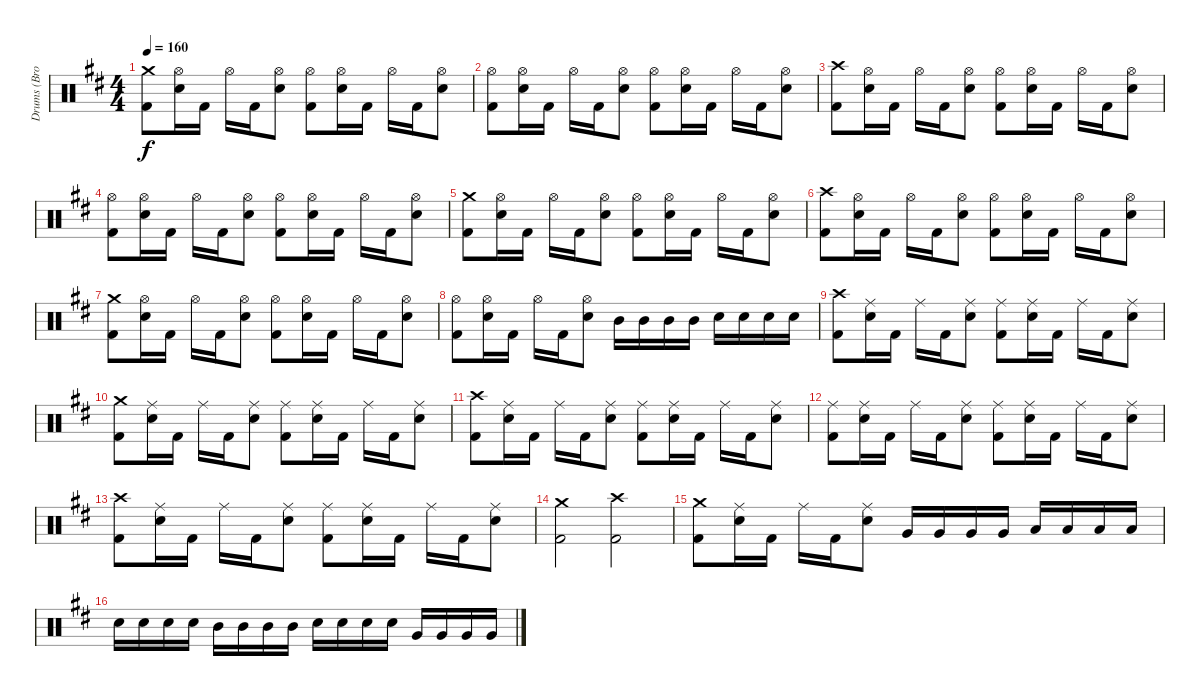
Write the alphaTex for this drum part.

\track ("Drums (Brooks Wackerman)" "Drums (Bro") {instrument percussion}
\staff {score}
\articulation defaults
\ts (4 4)
\tempo 160
\clef neutral
\ks d
("Crash medium (hit)" "Kick (hit) 2").8{dy f} ("Hi-Hat (open)" "Snare (hit) 2").16 "Kick (hit) 2".16 "Hi-Hat (open)".16 "Kick (hit) 2".16 ("Hi-Hat (open)" "Snare (hit) 2").8 ("Hi-Hat (open)" "Kick (hit) 2").8 ("Hi-Hat (open)" "Snare (hit) 2").16 "Kick (hit) 2".16 "Hi-Hat (open)".16 "Kick (hit) 2".16 ("Hi-Hat (open)" "Snare (hit) 2").8 |
("Hi-Hat (open)" "Kick (hit) 2").8 ("Hi-Hat (open)" "Snare (hit) 2").16 "Kick (hit) 2".16 "Hi-Hat (open)".16 "Kick (hit) 2".16 ("Hi-Hat (open)" "Snare (hit) 2").8 ("Hi-Hat (open)" "Kick (hit) 2").8 ("Hi-Hat (open)" "Snare (hit) 2").16 "Kick (hit) 2".16 "Hi-Hat (open)".16 "Kick (hit) 2".16 ("Hi-Hat (open)" "Snare (hit) 2").8 |
("Crash high (hit)" "Kick (hit) 2").8 ("Hi-Hat (open)" "Snare (hit) 2").16 "Kick (hit) 2".16 "Hi-Hat (open)".16 "Kick (hit) 2".16 ("Hi-Hat (open)" "Snare (hit) 2").8 ("Hi-Hat (open)" "Kick (hit) 2").8 ("Hi-Hat (open)" "Snare (hit) 2").16 "Kick (hit) 2".16 "Hi-Hat (open)".16 "Kick (hit) 2".16 ("Hi-Hat (open)" "Snare (hit) 2").8 |
("Hi-Hat (open)" "Kick (hit) 2").8 ("Hi-Hat (open)" "Snare (hit) 2").16 "Kick (hit) 2".16 "Hi-Hat (open)".16 "Kick (hit) 2".16 ("Hi-Hat (open)" "Snare (hit) 2").8 ("Hi-Hat (open)" "Kick (hit) 2").8 ("Hi-Hat (open)" "Snare (hit) 2").16 "Kick (hit) 2".16 "Hi-Hat (open)".16 "Kick (hit) 2".16 ("Hi-Hat (open)" "Snare (hit) 2").8 |
("Crash medium (hit)" "Kick (hit) 2").8 ("Hi-Hat (open)" "Snare (hit) 2").16 "Kick (hit) 2".16 "Hi-Hat (open)".16 "Kick (hit) 2".16 ("Hi-Hat (open)" "Snare (hit) 2").8 ("Hi-Hat (open)" "Kick (hit) 2").8 ("Hi-Hat (open)" "Snare (hit) 2").16 "Kick (hit) 2".16 "Hi-Hat (open)".16 "Kick (hit) 2".16 ("Hi-Hat (open)" "Snare (hit) 2").8 |
("Crash high (hit)" "Kick (hit) 2").8 ("Hi-Hat (open)" "Snare (hit) 2").16 "Kick (hit) 2".16 "Hi-Hat (open)".16 "Kick (hit) 2".16 ("Hi-Hat (open)" "Snare (hit) 2").8 ("Hi-Hat (open)" "Kick (hit) 2").8 ("Hi-Hat (open)" "Snare (hit) 2").16 "Kick (hit) 2".16 "Hi-Hat (open)".16 "Kick (hit) 2".16 ("Hi-Hat (open)" "Snare (hit) 2").8 |
("Crash medium (hit)" "Kick (hit) 2").8 ("Hi-Hat (open)" "Snare (hit) 2").16 "Kick (hit) 2".16 "Hi-Hat (open)".16 "Kick (hit) 2".16 ("Hi-Hat (open)" "Snare (hit) 2").8 ("Hi-Hat (open)" "Kick (hit) 2").8 ("Hi-Hat (open)" "Snare (hit) 2").16 "Kick (hit) 2".16 "Hi-Hat (open)".16 "Kick (hit) 2".16 ("Hi-Hat (open)" "Snare (hit) 2").8 |
("Hi-Hat (open)" "Kick (hit) 2").8 ("Hi-Hat (open)" "Snare (hit) 2").16 "Kick (hit) 2".16 "Hi-Hat (open)".16 "Kick (hit) 2".16 ("Hi-Hat (open)" "Snare (hit) 2").8 "Mid Tom (hit)".16 "Mid Tom (hit)".16 "Mid Tom (hit)".16 "Mid Tom (hit)".16 "Snare (hit) 2".16 "Snare (hit) 2".16 "Snare (hit) 2".16 "Snare (hit) 2".16 |
("Crash high (hit)" "Kick (hit) 2").8 ("Ride (middle)" "Snare (hit) 2").16 "Kick (hit) 2".16 "Ride (middle)".16 "Kick (hit) 2".16 ("Ride (middle)" "Snare (hit) 2").8 ("Ride (middle)" "Kick (hit) 2").8 ("Ride (middle)" "Snare (hit) 2").16 "Kick (hit) 2".16 "Ride (middle)".16 "Kick (hit) 2".16 ("Ride (middle)" "Snare (hit) 2").8 |
("Crash medium (hit)" "Kick (hit) 2").8 ("Ride (middle)" "Snare (hit) 2").16 "Kick (hit) 2".16 "Ride (middle)".16 "Kick (hit) 2".16 ("Ride (middle)" "Snare (hit) 2").8 ("Ride (middle)" "Kick (hit) 2").8 ("Ride (middle)" "Snare (hit) 2").16 "Kick (hit) 2".16 "Ride (middle)".16 "Kick (hit) 2".16 ("Ride (middle)" "Snare (hit) 2").8 |
("Crash high (hit)" "Kick (hit) 2").8 ("Ride (middle)" "Snare (hit) 2").16 "Kick (hit) 2".16 "Ride (middle)".16 "Kick (hit) 2".16 ("Ride (middle)" "Snare (hit) 2").8 ("Ride (middle)" "Kick (hit) 2").8 ("Ride (middle)" "Snare (hit) 2").16 "Kick (hit) 2".16 "Ride (middle)".16 "Kick (hit) 2".16 ("Ride (middle)" "Snare (hit) 2").8 |
("Ride (middle)" "Kick (hit) 2").8 ("Ride (middle)" "Snare (hit) 2").16 "Kick (hit) 2".16 "Ride (middle)".16 "Kick (hit) 2".16 ("Ride (middle)" "Snare (hit) 2").8 ("Ride (middle)" "Kick (hit) 2").8 ("Ride (middle)" "Snare (hit) 2").16 "Kick (hit) 2".16 "Ride (middle)".16 "Kick (hit) 2".16 ("Ride (middle)" "Snare (hit) 2").8 |
("Crash high (hit)" "Kick (hit) 2").8 ("Ride (middle)" "Snare (hit) 2").16 "Kick (hit) 2".16 "Ride (middle)".16 "Kick (hit) 2".16 ("Ride (middle)" "Snare (hit) 2").8 ("Ride (middle)" "Kick (hit) 2").8 ("Ride (middle)" "Snare (hit) 2").16 "Kick (hit) 2".16 "Ride (middle)".16 "Kick (hit) 2".16 ("Ride (middle)" "Snare (hit) 2").8 |
("Crash medium (hit)" "Kick (hit) 2").2 ("Crash high (hit)" "Kick (hit) 2").2 |
("Crash medium (hit)" "Kick (hit) 2").8 ("Ride (middle)" "Snare (hit) 2").16 "Kick (hit) 2".16 "Ride (middle)".16 "Kick (hit) 2".16 ("Ride (middle)" "Snare (hit) 2").8 "Very Low Tom (hit)".16 "Very Low Tom (hit)".16 "Very Low Tom (hit)".16 "Very Low Tom (hit)".16 "Low Floor Tom (hit)".16 "Low Floor Tom (hit)".16 "Low Floor Tom (hit)".16 "Low Floor Tom (hit)".16 |
"Snare (hit) 2".16 "Snare (hit) 2".16 "Snare (hit) 2".16 "Snare (hit) 2".16 "Mid Tom (hit)".16 "Mid Tom (hit)".16 "Mid Tom (hit)".16 "Mid Tom (hit)".16 "Snare (hit) 2".16 "Snare (hit) 2".16 "Snare (hit) 2".16 "Snare (hit) 2".16 "Very Low Tom (hit)".16 "Very Low Tom (hit)".16 "Very Low Tom (hit)".16 "Very Low Tom (hit)".16
